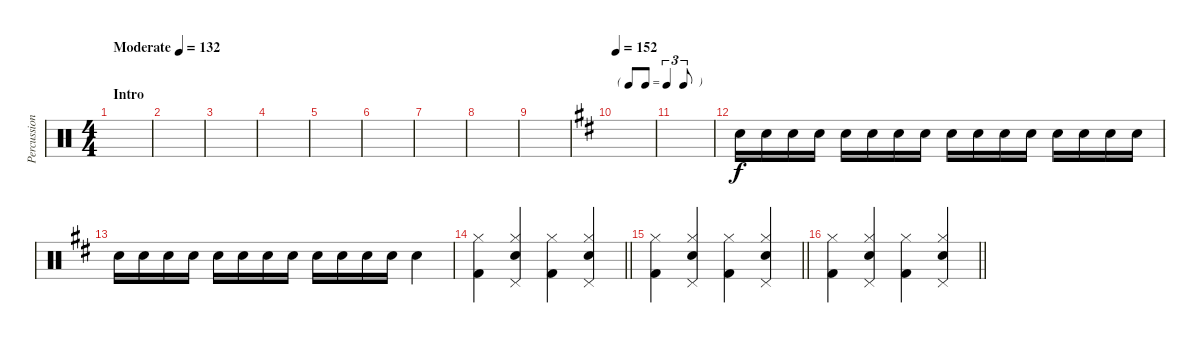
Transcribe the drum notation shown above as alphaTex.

\track ("Percussion" "Percussion") {instrument percussion}
\staff {score}
\articulation defaults
\ts (4 4)
\section ("" "Intro")
\tempo (132 "Moderate")
\clef neutral
\ks c
|
|
|
|
|
|
|
|
|
\tf triplet8th
\tempo 152
\ks d
|
|
"Snare (hit) 2".16 "Snare (hit) 2".16{dy f} "Snare (hit) 2".16 "Snare (hit) 2".16 "Snare (hit) 2".16 "Snare (hit) 2".16 "Snare (hit) 2".16 "Snare (hit) 2".16 "Snare (hit) 2".16 "Snare (hit) 2".16 "Snare (hit) 2".16 "Snare (hit) 2".16 "Snare (hit) 2".16 "Snare (hit) 2".16 "Snare (hit) 2".16 "Snare (hit) 2".16 |
"Snare (hit) 2".16 "Snare (hit) 2".16 "Snare (hit) 2".16 "Snare (hit) 2".16 "Snare (hit) 2".16 "Snare (hit) 2".16 "Snare (hit) 2".16 "Snare (hit) 2".16 "Snare (hit) 2".16 "Snare (hit) 2".16 "Snare (hit) 2".16 "Snare (hit) 2".16 "Snare (hit) 2".4 |
\barLineRight lightlight
("Hi-Hat (closed)" "Kick (hit) 2").4 ("Hi-Hat (closed)" "Snare (hit) 2" "Pedal Hi-Hat (hit)").4 ("Hi-Hat (closed)" "Kick (hit) 2").4 ("Hi-Hat (closed)" "Snare (hit) 2" "Pedal Hi-Hat (hit)").4 |
\barLineRight lightlight
("Hi-Hat (closed)" "Kick (hit) 2").4 ("Hi-Hat (closed)" "Snare (hit) 2" "Pedal Hi-Hat (hit)").4 ("Hi-Hat (closed)" "Kick (hit) 2").4 ("Hi-Hat (closed)" "Pedal Hi-Hat (hit)" "Snare (hit) 2").4 |
\barLineRight lightlight
("Hi-Hat (closed)" "Kick (hit) 2").4 ("Hi-Hat (closed)" "Snare (hit) 2" "Pedal Hi-Hat (hit)").4 ("Hi-Hat (closed)" "Kick (hit) 2").4 ("Hi-Hat (closed)" "Pedal Hi-Hat (hit)" "Snare (hit) 2").4
